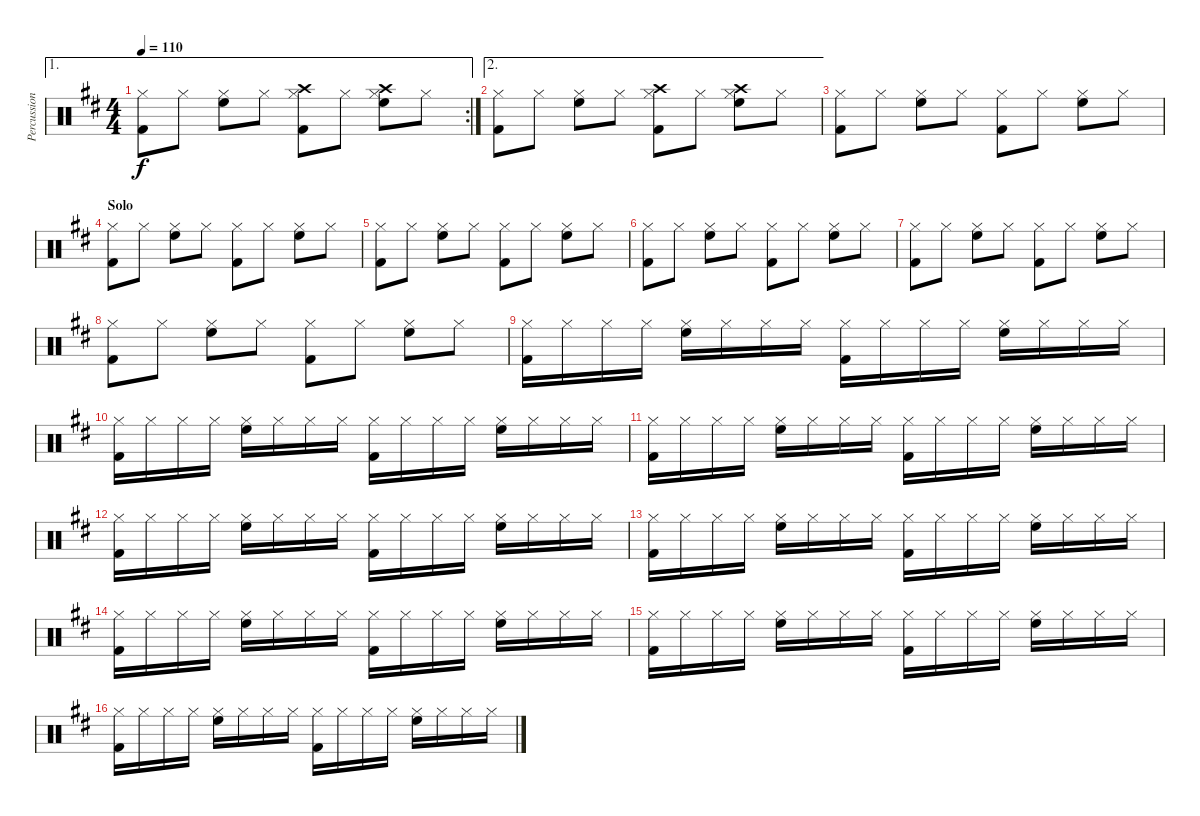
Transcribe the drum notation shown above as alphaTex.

\track ("Percussions" "Percussion") {instrument percussion}
\staff {score}
\articulation defaults
\ae 1
\rc 2
\ts (4 4)
\tempo 110
\clef neutral
\ks d
("Hi-Hat (closed)" "Kick (hit) 2").8{dy f} "Hi-Hat (closed)".8 ("Hi-Hat (closed)" "High Floor Tom (hit)").8 "Hi-Hat (closed)".8 ("Hi-Hat (closed)" "Kick (hit) 2" "Crash high (hit)").8 "Hi-Hat (closed)".8 ("Hi-Hat (closed)" "High Floor Tom (hit)" "Crash high (hit)").8 "Hi-Hat (closed)".8 |
\ae 2
("Hi-Hat (closed)" "Kick (hit) 2").8 "Hi-Hat (closed)".8 ("Hi-Hat (closed)" "High Floor Tom (hit)").8 "Hi-Hat (closed)".8 ("Hi-Hat (closed)" "Kick (hit) 2" "Crash high (hit)").8 "Hi-Hat (closed)".8 ("Hi-Hat (closed)" "High Floor Tom (hit)" "Crash high (hit)").8 "Hi-Hat (closed)".8 |
("Hi-Hat (closed)" "Kick (hit) 2").8 "Hi-Hat (closed)".8 ("Hi-Hat (closed)" "High Floor Tom (hit)").8 "Hi-Hat (closed)".8 ("Hi-Hat (closed)" "Kick (hit) 2").8 "Hi-Hat (closed)".8 ("Hi-Hat (closed)" "High Floor Tom (hit)").8 "Hi-Hat (closed)".8 |
\section ("" "Solo")
("Hi-Hat (closed)" "Kick (hit) 2").8 "Hi-Hat (closed)".8 ("Hi-Hat (closed)" "High Floor Tom (hit)").8 "Hi-Hat (closed)".8 ("Hi-Hat (closed)" "Kick (hit) 2").8 "Hi-Hat (closed)".8 ("Hi-Hat (closed)" "High Floor Tom (hit)").8 "Hi-Hat (closed)".8 |
("Hi-Hat (closed)" "Kick (hit) 2").8 "Hi-Hat (closed)".8 ("Hi-Hat (closed)" "High Floor Tom (hit)").8 "Hi-Hat (closed)".8 ("Hi-Hat (closed)" "Kick (hit) 2").8 "Hi-Hat (closed)".8 ("Hi-Hat (closed)" "High Floor Tom (hit)").8 "Hi-Hat (closed)".8 |
("Hi-Hat (closed)" "Kick (hit) 2").8 "Hi-Hat (closed)".8 ("Hi-Hat (closed)" "High Floor Tom (hit)").8 "Hi-Hat (closed)".8 ("Hi-Hat (closed)" "Kick (hit) 2").8 "Hi-Hat (closed)".8 ("Hi-Hat (closed)" "High Floor Tom (hit)").8 "Hi-Hat (closed)".8 |
("Hi-Hat (closed)" "Kick (hit) 2").8 "Hi-Hat (closed)".8 ("Hi-Hat (closed)" "High Floor Tom (hit)").8 "Hi-Hat (closed)".8 ("Hi-Hat (closed)" "Kick (hit) 2").8 "Hi-Hat (closed)".8 ("Hi-Hat (closed)" "High Floor Tom (hit)").8 "Hi-Hat (closed)".8 |
("Hi-Hat (closed)" "Kick (hit) 2").8 "Hi-Hat (closed)".8 ("Hi-Hat (closed)" "High Floor Tom (hit)").8 "Hi-Hat (closed)".8 ("Hi-Hat (closed)" "Kick (hit) 2").8 "Hi-Hat (closed)".8 ("Hi-Hat (closed)" "High Floor Tom (hit)").8 "Hi-Hat (closed)".8 |
("Hi-Hat (closed)" "Kick (hit) 2").16 "Hi-Hat (closed)".16 "Hi-Hat (closed)".16 "Hi-Hat (closed)".16 ("Hi-Hat (closed)" "High Floor Tom (hit)").16 "Hi-Hat (closed)".16 "Hi-Hat (closed)".16 "Hi-Hat (closed)".16 ("Hi-Hat (closed)" "Kick (hit) 2").16 "Hi-Hat (closed)".16 "Hi-Hat (closed)".16 "Hi-Hat (closed)".16 ("Hi-Hat (closed)" "High Floor Tom (hit)").16 "Hi-Hat (closed)".16 "Hi-Hat (closed)".16 "Hi-Hat (closed)".16 |
("Hi-Hat (closed)" "Kick (hit) 2").16 "Hi-Hat (closed)".16 "Hi-Hat (closed)".16 "Hi-Hat (closed)".16 ("Hi-Hat (closed)" "High Floor Tom (hit)").16 "Hi-Hat (closed)".16 "Hi-Hat (closed)".16 "Hi-Hat (closed)".16 ("Hi-Hat (closed)" "Kick (hit) 2").16 "Hi-Hat (closed)".16 "Hi-Hat (closed)".16 "Hi-Hat (closed)".16 ("Hi-Hat (closed)" "High Floor Tom (hit)").16 "Hi-Hat (closed)".16 "Hi-Hat (closed)".16 "Hi-Hat (closed)".16 |
("Hi-Hat (closed)" "Kick (hit) 2").16 "Hi-Hat (closed)".16 "Hi-Hat (closed)".16 "Hi-Hat (closed)".16 ("Hi-Hat (closed)" "High Floor Tom (hit)").16 "Hi-Hat (closed)".16 "Hi-Hat (closed)".16 "Hi-Hat (closed)".16 ("Hi-Hat (closed)" "Kick (hit) 2").16 "Hi-Hat (closed)".16 "Hi-Hat (closed)".16 "Hi-Hat (closed)".16 ("Hi-Hat (closed)" "High Floor Tom (hit)").16 "Hi-Hat (closed)".16 "Hi-Hat (closed)".16 "Hi-Hat (closed)".16 |
("Hi-Hat (closed)" "Kick (hit) 2").16 "Hi-Hat (closed)".16 "Hi-Hat (closed)".16 "Hi-Hat (closed)".16 ("Hi-Hat (closed)" "High Floor Tom (hit)").16 "Hi-Hat (closed)".16 "Hi-Hat (closed)".16 "Hi-Hat (closed)".16 ("Hi-Hat (closed)" "Kick (hit) 2").16 "Hi-Hat (closed)".16 "Hi-Hat (closed)".16 "Hi-Hat (closed)".16 ("Hi-Hat (closed)" "High Floor Tom (hit)").16 "Hi-Hat (closed)".16 "Hi-Hat (closed)".16 "Hi-Hat (closed)".16 |
("Hi-Hat (closed)" "Kick (hit) 2").16 "Hi-Hat (closed)".16 "Hi-Hat (closed)".16 "Hi-Hat (closed)".16 ("Hi-Hat (closed)" "High Floor Tom (hit)").16 "Hi-Hat (closed)".16 "Hi-Hat (closed)".16 "Hi-Hat (closed)".16 ("Hi-Hat (closed)" "Kick (hit) 2").16 "Hi-Hat (closed)".16 "Hi-Hat (closed)".16 "Hi-Hat (closed)".16 ("Hi-Hat (closed)" "High Floor Tom (hit)").16 "Hi-Hat (closed)".16 "Hi-Hat (closed)".16 "Hi-Hat (closed)".16 |
("Hi-Hat (closed)" "Kick (hit) 2").16 "Hi-Hat (closed)".16 "Hi-Hat (closed)".16 "Hi-Hat (closed)".16 ("Hi-Hat (closed)" "High Floor Tom (hit)").16 "Hi-Hat (closed)".16 "Hi-Hat (closed)".16 "Hi-Hat (closed)".16 ("Hi-Hat (closed)" "Kick (hit) 2").16 "Hi-Hat (closed)".16 "Hi-Hat (closed)".16 "Hi-Hat (closed)".16 ("Hi-Hat (closed)" "High Floor Tom (hit)").16 "Hi-Hat (closed)".16 "Hi-Hat (closed)".16 "Hi-Hat (closed)".16 |
("Hi-Hat (closed)" "Kick (hit) 2").16 "Hi-Hat (closed)".16 "Hi-Hat (closed)".16 "Hi-Hat (closed)".16 ("Hi-Hat (closed)" "High Floor Tom (hit)").16 "Hi-Hat (closed)".16 "Hi-Hat (closed)".16 "Hi-Hat (closed)".16 ("Hi-Hat (closed)" "Kick (hit) 2").16 "Hi-Hat (closed)".16 "Hi-Hat (closed)".16 "Hi-Hat (closed)".16 ("Hi-Hat (closed)" "High Floor Tom (hit)").16 "Hi-Hat (closed)".16 "Hi-Hat (closed)".16 "Hi-Hat (closed)".16 |
("Hi-Hat (closed)" "Kick (hit) 2").16 "Hi-Hat (closed)".16 "Hi-Hat (closed)".16 "Hi-Hat (closed)".16 ("Hi-Hat (closed)" "High Floor Tom (hit)").16 "Hi-Hat (closed)".16 "Hi-Hat (closed)".16 "Hi-Hat (closed)".16 ("Hi-Hat (closed)" "Kick (hit) 2").16 "Hi-Hat (closed)".16 "Hi-Hat (closed)".16 "Hi-Hat (closed)".16 ("Hi-Hat (closed)" "High Floor Tom (hit)").16 "Hi-Hat (closed)".16 "Hi-Hat (closed)".16 "Hi-Hat (closed)".16
